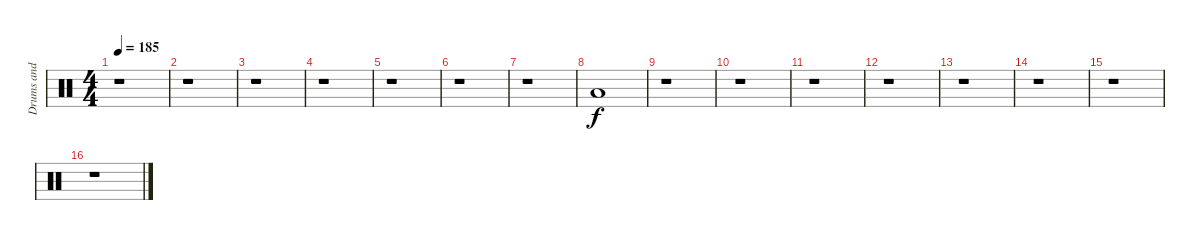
\track ("Drums and percussion" "Drums and ") {instrument percussion}
\staff {score}
\articulation defaults
\ts (4 4)
\tempo 185
\clef neutral
\ks c
r.1{dy f} |
r.1 |
r.1 |
r.1 |
r.1 |
r.1 |
r.1 |
"Low Tom (hit)".1 |
r.1 |
r.1 |
r.1 |
r.1 |
r.1 |
r.1 |
r.1 |
r.1
